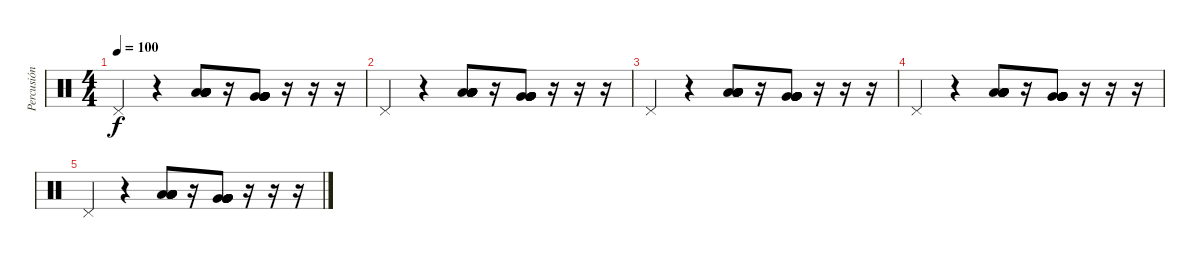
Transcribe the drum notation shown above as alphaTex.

\track ("Percusión" "Percusión") {instrument percussion}
\staff {score}
\articulation defaults
\ts (4 4)
\tempo 100
\clef neutral
\ks c "Pedal Hi-Hat (hit)".4{dy f}
r.4 ("Low Tom (hit)" "Low Tom (hit)" "Low Tom (hit)" "Low Tom (hit)" "Low Tom (hit)" "Low Tom (hit)").8 r.16 ("Very Low Tom (hit)" "Very Low Tom (hit)" "Very Low Tom (hit)" "Very Low Tom (hit)" "Very Low Tom (hit)" "Very Low Tom (hit)").8 r.16 r.16 r.16 |
"Pedal Hi-Hat (hit)".4 r.4 ("Low Tom (hit)" "Low Tom (hit)" "Low Tom (hit)" "Low Tom (hit)" "Low Tom (hit)" "Low Tom (hit)").8 r.16 ("Very Low Tom (hit)" "Very Low Tom (hit)" "Very Low Tom (hit)" "Very Low Tom (hit)" "Very Low Tom (hit)" "Very Low Tom (hit)").8 r.16 r.16 r.16 |
"Pedal Hi-Hat (hit)".4 r.4 ("Low Tom (hit)" "Low Tom (hit)" "Low Tom (hit)" "Low Tom (hit)" "Low Tom (hit)" "Low Tom (hit)").8 r.16 ("Very Low Tom (hit)" "Very Low Tom (hit)" "Very Low Tom (hit)" "Very Low Tom (hit)" "Very Low Tom (hit)" "Very Low Tom (hit)").8 r.16 r.16 r.16 |
"Pedal Hi-Hat (hit)".4 r.4 ("Low Tom (hit)" "Low Tom (hit)" "Low Tom (hit)" "Low Tom (hit)" "Low Tom (hit)" "Low Tom (hit)").8 r.16 ("Very Low Tom (hit)" "Very Low Tom (hit)" "Very Low Tom (hit)" "Very Low Tom (hit)" "Very Low Tom (hit)" "Very Low Tom (hit)").8 r.16 r.16 r.16 |
"Pedal Hi-Hat (hit)".4 r.4 ("Low Tom (hit)" "Low Tom (hit)" "Low Tom (hit)" "Low Tom (hit)" "Low Tom (hit)" "Low Tom (hit)").8 r.16 ("Very Low Tom (hit)" "Very Low Tom (hit)" "Very Low Tom (hit)" "Very Low Tom (hit)" "Very Low Tom (hit)" "Very Low Tom (hit)").8 r.16 r.16 r.16
